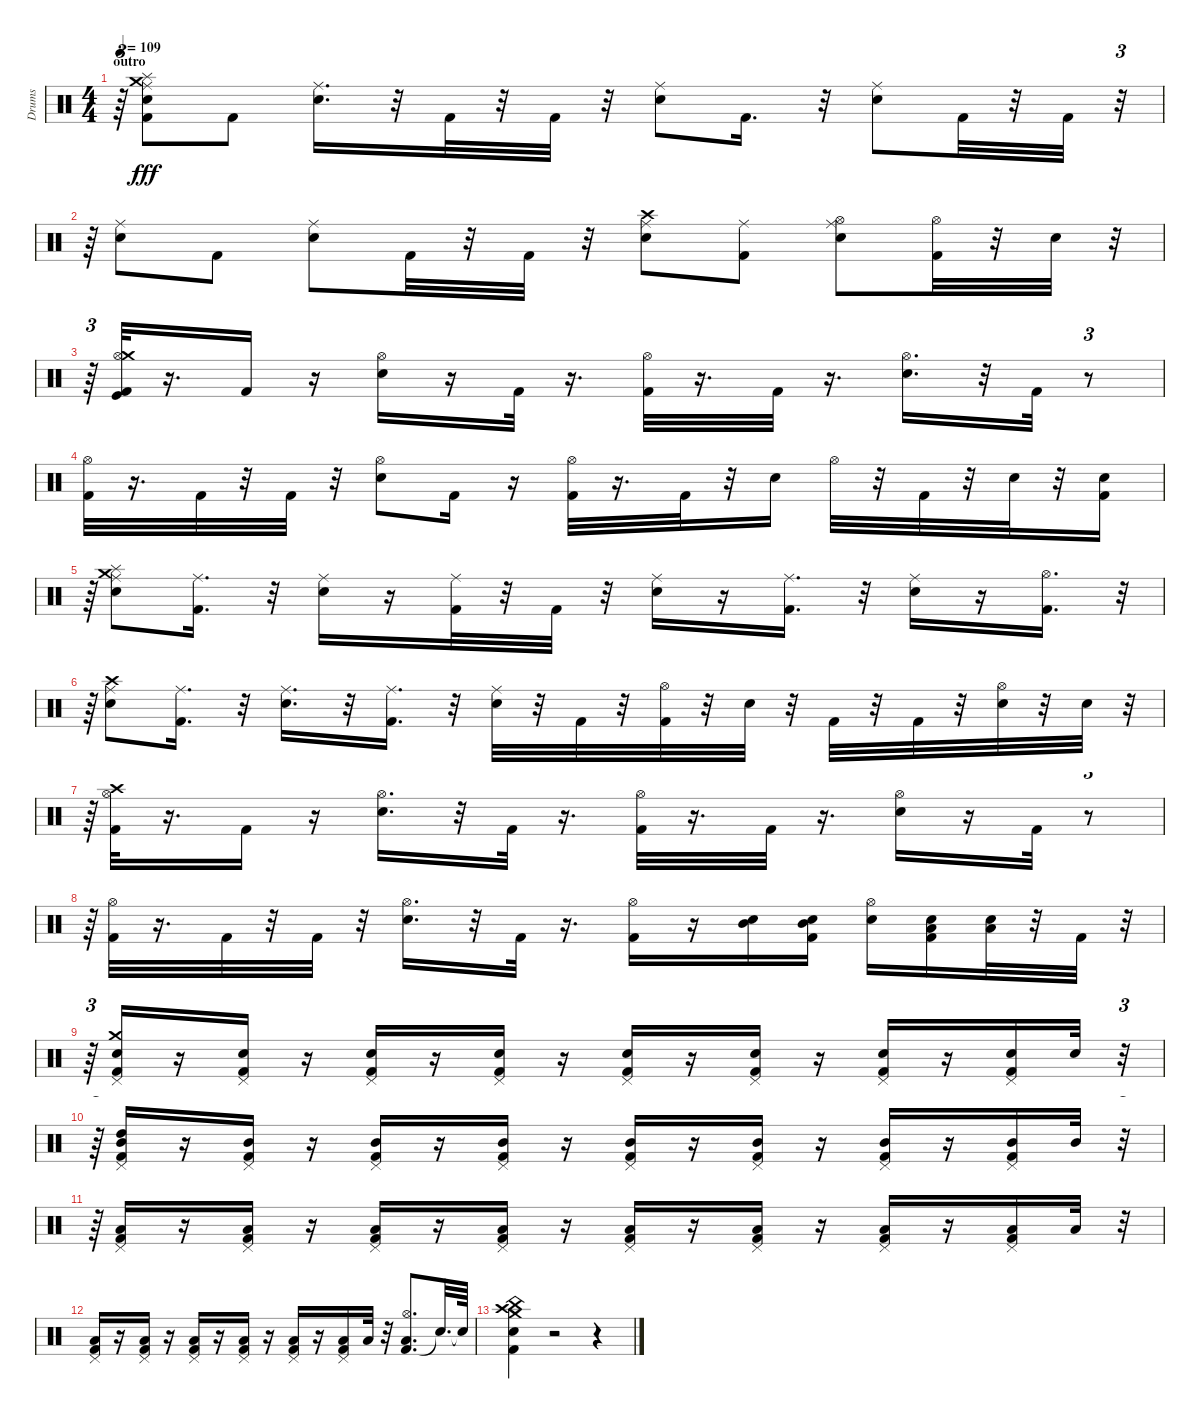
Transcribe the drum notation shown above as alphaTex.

\track ("Drums" "Drums") {instrument percussion}
\staff {score}
\articulation defaults
\ts (4 4)
\section ("" "outro")
\tempo 109
\clef neutral
\ks c
r.64{tu (3 2) dy fff} ("Kick (hit) 2" "Snare (hit) 2" "Ride (middle)" "Splash (hit)" "Crash medium (hit)").8 "Kick (hit) 2".8 ("Snare (hit) 2" "Ride (middle)").16{d} r.32 "Kick (hit) 2".32 r.32 "Kick (hit) 2".32 r.32 ("Snare (hit) 2" "Ride (middle)").8 "Kick (hit) 2".16{d} r.32 ("Snare (hit) 2" "Ride (middle)").8 "Kick (hit) 2".32 r.32 "Kick (hit) 2".32 r.32{tu (3 2)} |
r.64{tu (3 2)} ("Snare (hit) 2" "Ride (middle)").8 "Kick (hit) 2".8 ("Snare (hit) 2" "Ride (middle)").8 "Kick (hit) 2".32 r.32 "Kick (hit) 2".32 r.32 ("Snare (hit) 2" "Crash high (hit)" "Ride (middle)").8 ("Kick (hit) 2" "Ride (middle)").8 ("Snare (hit) 2" "Hi-Hat (open)" "Ride (middle)").8 ("Kick (hit) 2" "Hi-Hat (open)").32 r.32 "Snare (hit) 2".32 r.32{tu (3 2)} |
r.64{tu (3 2)} ("Kick (hit)" "Kick (hit) 2" "Hi-Hat (open)" "Crash medium (hit)").32 r.16{d} "Kick (hit) 2".16 r.16 ("Snare (hit) 2" "Hi-Hat (open)").16 r.16 "Kick (hit) 2".32 r.16{d} ("Kick (hit) 2" "Hi-Hat (open)").32 r.16{d} "Kick (hit) 2".32 r.16{d} ("Snare (hit) 2" "Hi-Hat (open)").16{d} r.32 "Kick (hit) 2".32 r.8{tu (3 2)} |
("Kick (hit) 2" "Hi-Hat (open)").32 r.16{d} "Kick (hit) 2".32 r.32 "Kick (hit) 2".32 r.32 ("Snare (hit) 2" "Hi-Hat (open)").8 "Kick (hit) 2".16 r.16 ("Kick (hit) 2" "Hi-Hat (open)").32 r.16{d} "Kick (hit) 2".32 r.32 "Snare (hit) 2".16 "Hi-Hat (open)".32 r.32 "Kick (hit) 2".32 r.32 "Snare (hit) 2".32 r.32 ("Kick (hit) 2" "Snare (hit) 2").16 |
r.64{tu (3 2)} ("Snare (hit) 2" "Ride (middle)" "Splash (hit)" "Crash medium (hit)").8 ("Kick (hit) 2" "Ride (middle)").16{d} r.32 ("Snare (hit) 2" "Ride (middle)").16 r.16 ("Kick (hit) 2" "Ride (middle)").32 r.32 "Kick (hit) 2".32 r.32 ("Snare (hit) 2" "Ride (middle)").16 r.16 ("Kick (hit) 2" "Ride (middle)").16{d} r.32 ("Snare (hit) 2" "Ride (middle)").16 r.16 ("Kick (hit) 2" "Hi-Hat (open)").16{d} r.32{tu (3 2)} |
r.64{tu (3 2)} ("Snare (hit) 2" "Crash high (hit)" "Ride (middle)").8 ("Kick (hit) 2" "Ride (middle)").16{d} r.32 ("Snare (hit) 2" "Ride (middle)").16{d} r.32 ("Kick (hit) 2" "Ride (middle)").16{d} r.32 ("Snare (hit) 2" "Ride (middle)").32 r.32 "Kick (hit) 2".32 r.32 ("Kick (hit) 2" "Hi-Hat (open)").32 r.32 "Snare (hit) 2".32 r.32 "Kick (hit) 2".32 r.32 "Kick (hit) 2".32 r.32 ("Snare (hit) 2" "Hi-Hat (open)").32 r.32 "Snare (hit) 2".32 r.32{tu (3 2)} |
r.64{tu (3 2)} ("Kick (hit) 2" "Hi-Hat (open)" "Crash high (hit)").32 r.16{d} "Kick (hit) 2".16 r.16 ("Snare (hit) 2" "Hi-Hat (open)").16{d} r.32 "Kick (hit) 2".32 r.16{d} ("Kick (hit) 2" "Hi-Hat (open)").32 r.16{d} "Kick (hit) 2".32 r.16{d} ("Snare (hit) 2" "Hi-Hat (open)").16 r.16 "Kick (hit) 2".32 r.8{tu (3 2)} |
r.64{tu (3 2)} ("Kick (hit) 2" "Hi-Hat (open)").32 r.16{d} "Kick (hit) 2".32 r.32 "Kick (hit) 2".32 r.32 ("Snare (hit) 2" "Hi-Hat (open)").16{d} r.32 "Kick (hit) 2".32 r.16{d} ("Kick (hit) 2" "Hi-Hat (open)").16 r.16 ("Snare (hit) 2" "Mid Tom (hit)").16 ("Kick (hit) 2" "Snare (hit) 2" "Mid Tom (hit)").16 ("Snare (hit) 2" "Hi-Hat (open)").16 ("Kick (hit) 2" "Snare (hit) 2" "Low Tom (hit)").16 ("Snare (hit) 2" "Low Floor Tom (hit)").32 r.32 "Kick (hit) 2".32 r.32{tu (3 2)} |
r.64{tu (3 2)} ("Kick (hit) 2" "Snare (hit) 2" "Pedal Hi-Hat (hit)" "Crash medium (hit)").16 r.16 ("Kick (hit) 2" "Snare (hit) 2" "Pedal Hi-Hat (hit)").16 r.16 ("Kick (hit) 2" "Snare (hit) 2" "Pedal Hi-Hat (hit)").16 r.16 ("Kick (hit) 2" "Snare (hit) 2" "Pedal Hi-Hat (hit)").16 r.16 ("Kick (hit) 2" "Snare (hit) 2" "Pedal Hi-Hat (hit)").16 r.16 ("Kick (hit) 2" "Snare (hit) 2" "Pedal Hi-Hat (hit)").16 r.16 ("Kick (hit) 2" "Snare (hit) 2" "Pedal Hi-Hat (hit)").16 r.16 ("Kick (hit) 2" "Snare (hit) 2" "Pedal Hi-Hat (hit)").16 "Snare (hit) 2".32 r.32{tu (3 2)} |
r.64{tu (3 2)} ("Kick (hit) 2" "Pedal Hi-Hat (hit)" "Mid Tom (hit)" "High Tom (hit)").16 r.16 ("Kick (hit) 2" "Pedal Hi-Hat (hit)" "Mid Tom (hit)").16 r.16 ("Kick (hit) 2" "Pedal Hi-Hat (hit)" "Mid Tom (hit)").16 r.16 ("Kick (hit) 2" "Pedal Hi-Hat (hit)" "Mid Tom (hit)").16 r.16 ("Kick (hit) 2" "Pedal Hi-Hat (hit)" "Mid Tom (hit)").16 r.16 ("Kick (hit) 2" "Pedal Hi-Hat (hit)" "Mid Tom (hit)").16 r.16 ("Kick (hit) 2" "Pedal Hi-Hat (hit)" "Mid Tom (hit)").16 r.16 ("Kick (hit) 2" "Pedal Hi-Hat (hit)" "Mid Tom (hit)").16 "Mid Tom (hit)".32 r.32{tu (3 2)} |
r.64{tu (3 2)} ("Kick (hit) 2" "Pedal Hi-Hat (hit)" "Low Tom (hit)").16 r.16 ("Kick (hit) 2" "Pedal Hi-Hat (hit)" "Low Tom (hit)").16 r.16 ("Kick (hit) 2" "Pedal Hi-Hat (hit)" "Low Tom (hit)").16 r.16 ("Kick (hit) 2" "Pedal Hi-Hat (hit)" "Low Tom (hit)").16 r.16 ("Kick (hit) 2" "Pedal Hi-Hat (hit)" "Low Tom (hit)").16 r.16 ("Kick (hit) 2" "Pedal Hi-Hat (hit)" "Low Tom (hit)").16 r.16 ("Kick (hit) 2" "Pedal Hi-Hat (hit)" "Low Tom (hit)").16 r.16 ("Kick (hit) 2" "Pedal Hi-Hat (hit)" "Low Tom (hit)").16 "Low Tom (hit)".32 r.32{tu (3 2)} |
("Kick (hit) 2" "Low Floor Tom (hit)" "Pedal Hi-Hat (hit)").16 r.16 ("Kick (hit) 2" "Low Floor Tom (hit)" "Pedal Hi-Hat (hit)").16 r.16 ("Kick (hit) 2" "Low Floor Tom (hit)" "Pedal Hi-Hat (hit)").16 r.16 ("Kick (hit) 2" "Low Floor Tom (hit)" "Pedal Hi-Hat (hit)").16 r.16 ("Kick (hit) 2" "Low Floor Tom (hit)" "Pedal Hi-Hat (hit)").16 r.16 ("Kick (hit) 2" "Low Floor Tom (hit)" "Pedal Hi-Hat (hit)").16 "Low Floor Tom (hit)".32 r.32 ("Kick (hit) 2" "Low Floor Tom (hit)" "Hi-Hat (open)").8{d} "Snare (hit)"{t}.32{d} "Snare (hit)"{t}.64 |
("Kick (hit) 2" "Snare (hit) 2" "Crash high (hit)" "China (hit)" "Crash medium (hit)").4 r.2 r.4
